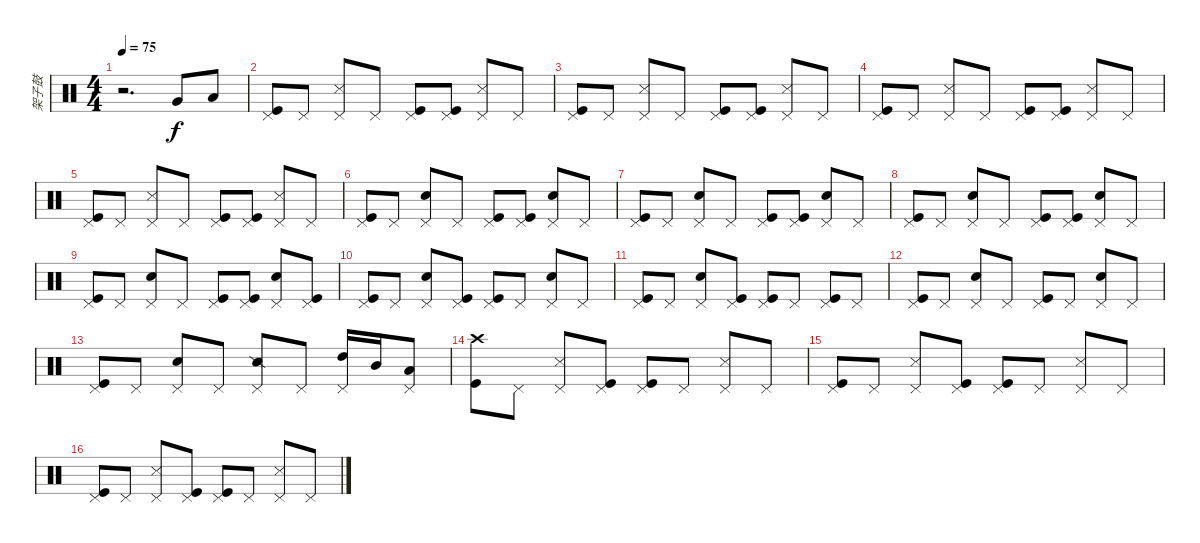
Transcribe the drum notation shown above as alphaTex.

\track ("架子鼓" "架子鼓") {instrument percussion}
\staff {score}
\articulation defaults
\ts (4 4)
\tempo 75
\clef neutral
\ks c
r.2{d dy f} "Very Low Tom (hit)".8 "Low Floor Tom (hit)".8 |
("Kick (hit)" "Pedal Hi-Hat (hit)").8 "Pedal Hi-Hat (hit)".8 ("Snare (side stick) 3" "Pedal Hi-Hat (hit)").8 "Pedal Hi-Hat (hit)".8 ("Kick (hit)" "Pedal Hi-Hat (hit)").8 ("Kick (hit)" "Pedal Hi-Hat (hit)").8 ("Snare (side stick) 3" "Pedal Hi-Hat (hit)").8 "Pedal Hi-Hat (hit)".8 |
("Kick (hit)" "Pedal Hi-Hat (hit)").8 "Pedal Hi-Hat (hit)".8 ("Snare (side stick) 3" "Pedal Hi-Hat (hit)").8 "Pedal Hi-Hat (hit)".8 ("Kick (hit)" "Pedal Hi-Hat (hit)").8 ("Kick (hit)" "Pedal Hi-Hat (hit)").8 ("Snare (side stick) 3" "Pedal Hi-Hat (hit)").8 "Pedal Hi-Hat (hit)".8 |
("Kick (hit)" "Pedal Hi-Hat (hit)").8 "Pedal Hi-Hat (hit)".8 ("Snare (side stick) 3" "Pedal Hi-Hat (hit)").8 "Pedal Hi-Hat (hit)".8 ("Kick (hit)" "Pedal Hi-Hat (hit)").8 ("Kick (hit)" "Pedal Hi-Hat (hit)").8 ("Snare (side stick) 3" "Pedal Hi-Hat (hit)").8 "Pedal Hi-Hat (hit)".8 |
("Kick (hit)" "Pedal Hi-Hat (hit)").8 "Pedal Hi-Hat (hit)".8 ("Snare (side stick) 3" "Pedal Hi-Hat (hit)").8 "Pedal Hi-Hat (hit)".8 ("Kick (hit)" "Pedal Hi-Hat (hit)").8 ("Kick (hit)" "Pedal Hi-Hat (hit)").8 ("Snare (side stick) 3" "Pedal Hi-Hat (hit)").8 "Pedal Hi-Hat (hit)".8 |
("Kick (hit)" "Pedal Hi-Hat (hit)").8 "Pedal Hi-Hat (hit)".8 ("Snare (hit) 2" "Pedal Hi-Hat (hit)").8 "Pedal Hi-Hat (hit)".8 ("Kick (hit)" "Pedal Hi-Hat (hit)").8 ("Kick (hit)" "Pedal Hi-Hat (hit)").8 ("Snare (hit) 2" "Pedal Hi-Hat (hit)").8 "Pedal Hi-Hat (hit)".8 |
("Kick (hit)" "Pedal Hi-Hat (hit)").8 "Pedal Hi-Hat (hit)".8 ("Snare (hit) 2" "Pedal Hi-Hat (hit)").8 "Pedal Hi-Hat (hit)".8 ("Kick (hit)" "Pedal Hi-Hat (hit)").8 ("Kick (hit)" "Pedal Hi-Hat (hit)").8 ("Snare (hit) 2" "Pedal Hi-Hat (hit)").8 "Pedal Hi-Hat (hit)".8 |
("Kick (hit)" "Pedal Hi-Hat (hit)").8 "Pedal Hi-Hat (hit)".8 ("Snare (hit) 2" "Pedal Hi-Hat (hit)").8 "Pedal Hi-Hat (hit)".8 ("Kick (hit)" "Pedal Hi-Hat (hit)").8 ("Kick (hit)" "Pedal Hi-Hat (hit)").8 ("Snare (hit) 2" "Pedal Hi-Hat (hit)").8 "Pedal Hi-Hat (hit)".8 |
("Kick (hit)" "Pedal Hi-Hat (hit)").8 "Pedal Hi-Hat (hit)".8 ("Snare (hit) 2" "Pedal Hi-Hat (hit)").8 "Pedal Hi-Hat (hit)".8 ("Kick (hit)" "Pedal Hi-Hat (hit)").8 ("Kick (hit)" "Pedal Hi-Hat (hit)").8 ("Snare (hit) 2" "Pedal Hi-Hat (hit)").8 ("Kick (hit)" "Pedal Hi-Hat (hit)").8 |
("Kick (hit)" "Pedal Hi-Hat (hit)").8 "Pedal Hi-Hat (hit)".8 ("Snare (hit) 2" "Pedal Hi-Hat (hit)").8 ("Kick (hit)" "Pedal Hi-Hat (hit)").8 ("Kick (hit)" "Pedal Hi-Hat (hit)").8 "Pedal Hi-Hat (hit)".8 ("Snare (hit) 2" "Pedal Hi-Hat (hit)").8 "Pedal Hi-Hat (hit)".8 |
("Kick (hit)" "Pedal Hi-Hat (hit)").8 "Pedal Hi-Hat (hit)".8 ("Snare (hit) 2" "Pedal Hi-Hat (hit)").8 ("Kick (hit)" "Pedal Hi-Hat (hit)").8 ("Kick (hit)" "Pedal Hi-Hat (hit)").8 "Pedal Hi-Hat (hit)".8 ("Kick (hit)" "Pedal Hi-Hat (hit)").8 "Pedal Hi-Hat (hit)".8 |
("Kick (hit)" "Pedal Hi-Hat (hit)").8 "Pedal Hi-Hat (hit)".8 ("Snare (hit) 2" "Pedal Hi-Hat (hit)").8 "Pedal Hi-Hat (hit)".8 ("Kick (hit)" "Pedal Hi-Hat (hit)").8 "Pedal Hi-Hat (hit)".8 ("Snare (hit) 2" "Pedal Hi-Hat (hit)").8 "Pedal Hi-Hat (hit)".8 |
("Kick (hit)" "Pedal Hi-Hat (hit)").8 "Pedal Hi-Hat (hit)".8 ("Snare (hit) 2" "Pedal Hi-Hat (hit)").8 "Pedal Hi-Hat (hit)".8 ("Snare (side stick) 2" "Pedal Hi-Hat (hit)").8 "Pedal Hi-Hat (hit)".8 ("High Tom (hit)" "Pedal Hi-Hat (hit)").16 "Mid Tom (hit)".16 ("Low Tom (hit)" "Pedal Hi-Hat (hit)").8 |
("Kick (hit)" "Crash high (hit)").8 "Pedal Hi-Hat (hit)".8 ("Snare (side stick) 3" "Pedal Hi-Hat (hit)").8 ("Kick (hit)" "Pedal Hi-Hat (hit)").8 ("Kick (hit)" "Pedal Hi-Hat (hit)").8 "Pedal Hi-Hat (hit)".8 ("Snare (side stick) 3" "Pedal Hi-Hat (hit)").8 "Pedal Hi-Hat (hit)".8 |
("Kick (hit)" "Pedal Hi-Hat (hit)").8 "Pedal Hi-Hat (hit)".8 ("Snare (side stick) 3" "Pedal Hi-Hat (hit)").8 ("Kick (hit)" "Pedal Hi-Hat (hit)").8 ("Kick (hit)" "Pedal Hi-Hat (hit)").8 "Pedal Hi-Hat (hit)".8 ("Snare (side stick) 3" "Pedal Hi-Hat (hit)").8 "Pedal Hi-Hat (hit)".8 |
("Kick (hit)" "Pedal Hi-Hat (hit)").8 "Pedal Hi-Hat (hit)".8 ("Snare (side stick) 3" "Pedal Hi-Hat (hit)").8 ("Kick (hit)" "Pedal Hi-Hat (hit)").8 ("Kick (hit)" "Pedal Hi-Hat (hit)").8 "Pedal Hi-Hat (hit)".8 ("Snare (side stick) 3" "Pedal Hi-Hat (hit)").8 "Pedal Hi-Hat (hit)".8
